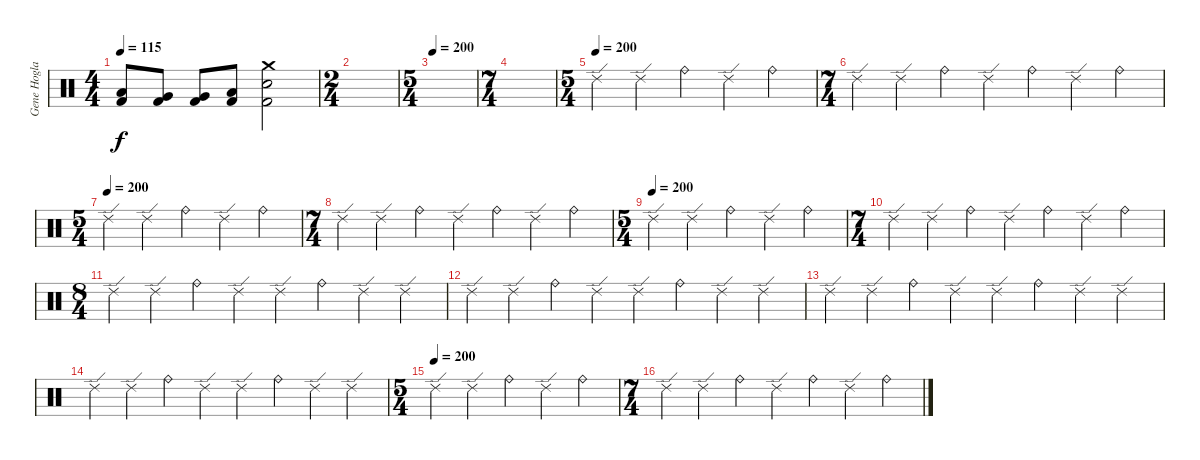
\track ("Gene Hoglan" "Gene Hogla") {instrument percussion}
\staff {score}
\articulation defaults
\ts (4 4)
\tempo 115
\clef neutral
\ks c
("Kick (hit) 2" "Low Tom (hit)").8{dy f} ("Kick (hit) 2" "Very Low Tom (hit)").8 ("Kick (hit) 2" "Very Low Tom (hit)").8 ("Kick (hit) 2" "Low Floor Tom (hit)").8 ("Kick (hit) 2" "Electric Snare (hit)" "Crash medium (hit)").2 |
\ts (2 4)
|
\ts (5 4)
\tempo 200
|
\ts (7 4)
|
\ts (5 4)
\tempo (200)
"Ride (edge) 2".4 "Ride (edge) 2".4 "Ride (bell)".4 "Ride (edge) 2".4 "Ride (bell)".4 |
\ts (7 4)
"Ride (edge) 2".4 "Ride (edge) 2".4 "Ride (bell)".4 "Ride (edge) 2".4 "Ride (bell)".4 "Ride (edge) 2".4 "Ride (bell)".4 |
\ts (5 4)
\tempo (200)
"Ride (edge) 2".4 "Ride (edge) 2".4 "Ride (bell)".4 "Ride (edge) 2".4 "Ride (bell)".4 |
\ts (7 4)
"Ride (edge) 2".4 "Ride (edge) 2".4 "Ride (bell)".4 "Ride (edge) 2".4 "Ride (bell)".4 "Ride (edge) 2".4 "Ride (bell)".4 |
\ts (5 4)
\tempo (200)
"Ride (edge) 2".4 "Ride (edge) 2".4 "Ride (bell)".4 "Ride (edge) 2".4 "Ride (bell)".4 |
\ts (7 4)
"Ride (edge) 2".4 "Ride (edge) 2".4 "Ride (bell)".4 "Ride (edge) 2".4 "Ride (bell)".4 "Ride (edge) 2".4 "Ride (bell)".4 |
\ts (8 4)
"Ride (edge) 2".4 "Ride (edge) 2".4 "Ride (bell)".4 "Ride (edge) 2".4 "Ride (edge) 2".4 "Ride (bell)".4 "Ride (edge) 2".4 "Ride (edge) 2".4 |
"Ride (edge) 2".4 "Ride (edge) 2".4 "Ride (bell)".4 "Ride (edge) 2".4 "Ride (edge) 2".4 "Ride (bell)".4 "Ride (edge) 2".4 "Ride (edge) 2".4 |
"Ride (edge) 2".4 "Ride (edge) 2".4 "Ride (bell)".4 "Ride (edge) 2".4 "Ride (edge) 2".4 "Ride (bell)".4 "Ride (edge) 2".4 "Ride (edge) 2".4 |
"Ride (edge) 2".4 "Ride (edge) 2".4 "Ride (bell)".4 "Ride (edge) 2".4 "Ride (edge) 2".4 "Ride (bell)".4 "Ride (edge) 2".4 "Ride (edge) 2".4 |
\ts (5 4)
\tempo (200)
"Ride (edge) 2".4 "Ride (edge) 2".4 "Ride (bell)".4 "Ride (edge) 2".4 "Ride (bell)".4 |
\ts (7 4)
"Ride (edge) 2".4 "Ride (edge) 2".4 "Ride (bell)".4 "Ride (edge) 2".4 "Ride (bell)".4 "Ride (edge) 2".4 "Ride (bell)".4
